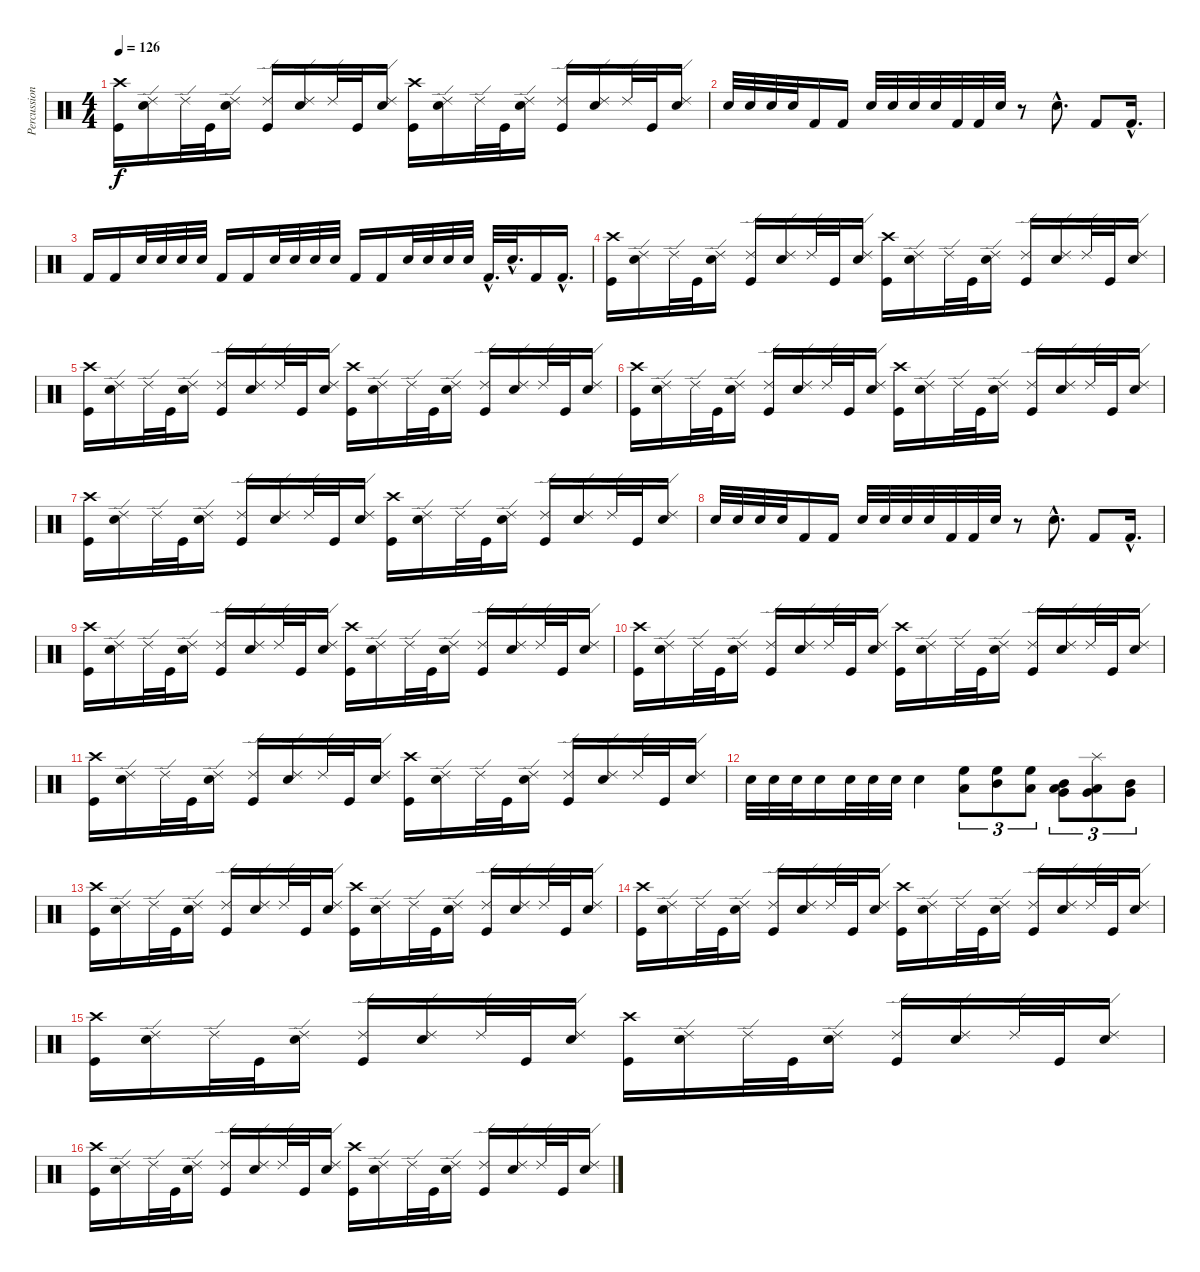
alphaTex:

\track ("Percussion" "Percussion") {instrument percussion}
\staff {score}
\articulation defaults
\ts (4 4)
\tempo 126
\clef neutral
\ks c
("Crash high (hit)" "Kick (hit)").16{dy f} ("Ride (edge) 2" "Snare (hit) 2").16 "Ride (edge) 2".32 "Kick (hit)".32 ("Ride (edge) 2" "Snare (hit) 2").16 ("Ride (edge) 2" "Kick (hit)").16 ("Ride (edge) 2" "Snare (hit) 2").16 "Ride (edge) 2".32 "Kick (hit)".32 ("Ride (edge) 2" "Snare (hit) 2").16 ("Crash high (hit)" "Kick (hit)").16 ("Ride (edge) 2" "Snare (hit) 2").16 "Ride (edge) 2".32 "Kick (hit)".32 ("Ride (edge) 2" "Snare (hit) 2").16 ("Ride (edge) 2" "Kick (hit)").16 ("Ride (edge) 2" "Snare (hit) 2").16 "Ride (edge) 2".32 "Kick (hit)".32 ("Ride (edge) 2" "Snare (hit) 2").16 |
"Snare (hit) 2".32 "Snare (hit) 2".32 "Snare (hit) 2".32 "Snare (hit) 2".32 "Kick (hit) 2".16 "Kick (hit) 2".16 "Snare (hit) 2".32 "Snare (hit) 2".32 "Snare (hit) 2".32 "Snare (hit) 2".32 "Kick (hit) 2".32 "Kick (hit) 2".32 "Snare (hit) 2".32 r.8 "Snare (hit) 2"{hac}.8{d} "Kick (hit) 2".8 "Kick (hit) 2"{hac}.16{d} |
"Kick (hit) 2".16 "Kick (hit) 2".16 "Snare (hit) 2".32 "Snare (hit) 2".32 "Snare (hit) 2".32 "Snare (hit) 2".32 "Kick (hit) 2".16 "Kick (hit) 2".16 "Snare (hit) 2".32 "Snare (hit) 2".32 "Snare (hit) 2".32 "Snare (hit) 2".32 "Kick (hit) 2".16 "Kick (hit) 2".16 "Snare (hit) 2".32 "Snare (hit) 2".32 "Snare (hit) 2".32 "Snare (hit) 2".32 "Kick (hit) 2"{hac}.32{d} "Snare (hit) 2"{hac}.32{d} "Kick (hit) 2".16 "Kick (hit) 2"{hac}.16{d} |
("Crash high (hit)" "Kick (hit)").16 ("Ride (edge) 2" "Snare (hit) 2").16 "Ride (edge) 2".32 "Kick (hit)".32 ("Ride (edge) 2" "Snare (hit) 2").16 ("Ride (edge) 2" "Kick (hit)").16 ("Ride (edge) 2" "Snare (hit) 2").16 "Ride (edge) 2".32 "Kick (hit)".32 ("Ride (edge) 2" "Snare (hit) 2").16 ("Crash high (hit)" "Kick (hit)").16 ("Ride (edge) 2" "Snare (hit) 2").16 "Ride (edge) 2".32 "Kick (hit)".32 ("Ride (edge) 2" "Snare (hit) 2").16 ("Ride (edge) 2" "Kick (hit)").16 ("Ride (edge) 2" "Snare (hit) 2").16 "Ride (edge) 2".32 "Kick (hit)".32 ("Ride (edge) 2" "Snare (hit) 2").16 |
("Crash high (hit)" "Kick (hit)").16 ("Ride (edge) 2" "Snare (hit) 2").16 "Ride (edge) 2".32 "Kick (hit)".32 ("Ride (edge) 2" "Snare (hit) 2").16 ("Ride (edge) 2" "Kick (hit)").16 ("Ride (edge) 2" "Snare (hit) 2").16 "Ride (edge) 2".32 "Kick (hit)".32 ("Ride (edge) 2" "Snare (hit) 2").16 ("Crash high (hit)" "Kick (hit)").16 ("Ride (edge) 2" "Snare (hit) 2").16 "Ride (edge) 2".32 "Kick (hit)".32 ("Ride (edge) 2" "Snare (hit) 2").16 ("Ride (edge) 2" "Kick (hit)").16 ("Ride (edge) 2" "Snare (hit) 2").16 "Ride (edge) 2".32 "Kick (hit)".32 ("Ride (edge) 2" "Snare (hit) 2").16 |
("Crash high (hit)" "Kick (hit)").16 ("Ride (edge) 2" "Snare (hit) 2").16 "Ride (edge) 2".32 "Kick (hit)".32 ("Ride (edge) 2" "Snare (hit) 2").16 ("Ride (edge) 2" "Kick (hit)").16 ("Ride (edge) 2" "Snare (hit) 2").16 "Ride (edge) 2".32 "Kick (hit)".32 ("Ride (edge) 2" "Snare (hit) 2").16 ("Crash high (hit)" "Kick (hit)").16 ("Ride (edge) 2" "Snare (hit) 2").16 "Ride (edge) 2".32 "Kick (hit)".32 ("Ride (edge) 2" "Snare (hit) 2").16 ("Ride (edge) 2" "Kick (hit)").16 ("Ride (edge) 2" "Snare (hit) 2").16 "Ride (edge) 2".32 "Kick (hit)".32 ("Ride (edge) 2" "Snare (hit) 2").16 |
("Crash high (hit)" "Kick (hit)").16 ("Ride (edge) 2" "Snare (hit) 2").16 "Ride (edge) 2".32 "Kick (hit)".32 ("Ride (edge) 2" "Snare (hit) 2").16 ("Ride (edge) 2" "Kick (hit)").16 ("Ride (edge) 2" "Snare (hit) 2").16 "Ride (edge) 2".32 "Kick (hit)".32 ("Ride (edge) 2" "Snare (hit) 2").16 ("Crash high (hit)" "Kick (hit)").16 ("Ride (edge) 2" "Snare (hit) 2").16 "Ride (edge) 2".32 "Kick (hit)".32 ("Ride (edge) 2" "Snare (hit) 2").16 ("Ride (edge) 2" "Kick (hit)").16 ("Ride (edge) 2" "Snare (hit) 2").16 "Ride (edge) 2".32 "Kick (hit)".32 ("Ride (edge) 2" "Snare (hit) 2").16 |
"Snare (hit) 2".32 "Snare (hit) 2".32 "Snare (hit) 2".32 "Snare (hit) 2".32 "Kick (hit) 2".16 "Kick (hit) 2".16 "Snare (hit) 2".32 "Snare (hit) 2".32 "Snare (hit) 2".32 "Snare (hit) 2".32 "Kick (hit) 2".32 "Kick (hit) 2".32 "Snare (hit) 2".32 r.8 "Snare (hit) 2"{hac}.8{d} "Kick (hit) 2".8 "Kick (hit) 2"{hac}.16{d} |
("Crash high (hit)" "Kick (hit)").16 ("Ride (edge) 2" "Snare (hit) 2").16 "Ride (edge) 2".32 "Kick (hit)".32 ("Ride (edge) 2" "Snare (hit) 2").16 ("Ride (edge) 2" "Kick (hit)").16 ("Ride (edge) 2" "Snare (hit) 2").16 "Ride (edge) 2".32 "Kick (hit)".32 ("Ride (edge) 2" "Snare (hit) 2").16 ("Crash high (hit)" "Kick (hit)").16 ("Ride (edge) 2" "Snare (hit) 2").16 "Ride (edge) 2".32 "Kick (hit)".32 ("Ride (edge) 2" "Snare (hit) 2").16 ("Ride (edge) 2" "Kick (hit)").16 ("Ride (edge) 2" "Snare (hit) 2").16 "Ride (edge) 2".32 "Kick (hit)".32 ("Ride (edge) 2" "Snare (hit) 2").16 |
("Crash high (hit)" "Kick (hit)").16 ("Ride (edge) 2" "Snare (hit) 2").16 "Ride (edge) 2".32 "Kick (hit)".32 ("Ride (edge) 2" "Snare (hit) 2").16 ("Ride (edge) 2" "Kick (hit)").16 ("Ride (edge) 2" "Snare (hit) 2").16 "Ride (edge) 2".32 "Kick (hit)".32 ("Ride (edge) 2" "Snare (hit) 2").16 ("Crash high (hit)" "Kick (hit)").16 ("Ride (edge) 2" "Snare (hit) 2").16 "Ride (edge) 2".32 "Kick (hit)".32 ("Ride (edge) 2" "Snare (hit) 2").16 ("Ride (edge) 2" "Kick (hit)").16 ("Ride (edge) 2" "Snare (hit) 2").16 "Ride (edge) 2".32 "Kick (hit)".32 ("Ride (edge) 2" "Snare (hit) 2").16 |
("Crash high (hit)" "Kick (hit)").16 ("Ride (edge) 2" "Snare (hit) 2").16 "Ride (edge) 2".32 "Kick (hit)".32 ("Ride (edge) 2" "Snare (hit) 2").16 ("Ride (edge) 2" "Kick (hit)").16 ("Ride (edge) 2" "Snare (hit) 2").16 "Ride (edge) 2".32 "Kick (hit)".32 ("Ride (edge) 2" "Snare (hit) 2").16 ("Crash high (hit)" "Kick (hit)").16 ("Ride (edge) 2" "Snare (hit) 2").16 "Ride (edge) 2".32 "Kick (hit)".32 ("Ride (edge) 2" "Snare (hit) 2").16 ("Ride (edge) 2" "Kick (hit)").16 ("Ride (edge) 2" "Snare (hit) 2").16 "Ride (edge) 2".32 "Kick (hit)".32 ("Ride (edge) 2" "Snare (hit) 2").16 |
"Snare (hit) 2".32 "Snare (hit) 2".32 "Snare (hit) 2".32 "Snare (hit) 2".16 "Snare (hit) 2".32 "Snare (hit) 2".32 "Snare (hit) 2".32 "Snare (hit) 2".4 ("Low Floor Tom (hit)" "High Floor Tom (hit)").8{tu (3 2)} ("High Floor Tom (hit)" "Mid Tom (hit)").8{tu (3 2)} ("Low Floor Tom (hit)" "High Floor Tom (hit)").8{tu (3 2)} ("Low Tom (hit)" "Very Low Tom (hit)" "Mid Tom (hit)").8{tu (3 2)} ("Low Tom (hit)" "Very Low Tom (hit)" "Splash (hit)").8{tu (3 2)} ("Very Low Tom (hit)" "Mid Tom (hit)").8{tu (3 2)} |
("Crash high (hit)" "Kick (hit)").16 ("Ride (edge) 2" "Snare (hit) 2").16 "Ride (edge) 2".32 "Kick (hit)".32 ("Ride (edge) 2" "Snare (hit) 2").16 ("Ride (edge) 2" "Kick (hit)").16 ("Ride (edge) 2" "Snare (hit) 2").16 "Ride (edge) 2".32 "Kick (hit)".32 ("Ride (edge) 2" "Snare (hit) 2").16 ("Crash high (hit)" "Kick (hit)").16 ("Ride (edge) 2" "Snare (hit) 2").16 "Ride (edge) 2".32 "Kick (hit)".32 ("Ride (edge) 2" "Snare (hit) 2").16 ("Ride (edge) 2" "Kick (hit)").16 ("Ride (edge) 2" "Snare (hit) 2").16 "Ride (edge) 2".32 "Kick (hit)".32 ("Ride (edge) 2" "Snare (hit) 2").16 |
("Crash high (hit)" "Kick (hit)").16 ("Ride (edge) 2" "Snare (hit) 2").16 "Ride (edge) 2".32 "Kick (hit)".32 ("Ride (edge) 2" "Snare (hit) 2").16 ("Ride (edge) 2" "Kick (hit)").16 ("Ride (edge) 2" "Snare (hit) 2").16 "Ride (edge) 2".32 "Kick (hit)".32 ("Ride (edge) 2" "Snare (hit) 2").16 ("Crash high (hit)" "Kick (hit)").16 ("Ride (edge) 2" "Snare (hit) 2").16 "Ride (edge) 2".32 "Kick (hit)".32 ("Ride (edge) 2" "Snare (hit) 2").16 ("Ride (edge) 2" "Kick (hit)").16 ("Ride (edge) 2" "Snare (hit) 2").16 "Ride (edge) 2".32 "Kick (hit)".32 ("Ride (edge) 2" "Snare (hit) 2").16 |
("Crash high (hit)" "Kick (hit)").16 ("Ride (edge) 2" "Snare (hit) 2").16 "Ride (edge) 2".32 "Kick (hit)".32 ("Ride (edge) 2" "Snare (hit) 2").16 ("Ride (edge) 2" "Kick (hit)").16 ("Ride (edge) 2" "Snare (hit) 2").16 "Ride (edge) 2".32 "Kick (hit)".32 ("Ride (edge) 2" "Snare (hit) 2").16 ("Crash high (hit)" "Kick (hit)").16 ("Ride (edge) 2" "Snare (hit) 2").16 "Ride (edge) 2".32 "Kick (hit)".32 ("Ride (edge) 2" "Snare (hit) 2").16 ("Ride (edge) 2" "Kick (hit)").16 ("Ride (edge) 2" "Snare (hit) 2").16 "Ride (edge) 2".32 "Kick (hit)".32 ("Ride (edge) 2" "Snare (hit) 2").16 |
("Crash high (hit)" "Kick (hit)").16 ("Ride (edge) 2" "Snare (hit) 2").16 "Ride (edge) 2".32 "Kick (hit)".32 ("Ride (edge) 2" "Snare (hit) 2").16 ("Ride (edge) 2" "Kick (hit)").16 ("Ride (edge) 2" "Snare (hit) 2").16 "Ride (edge) 2".32 "Kick (hit)".32 ("Ride (edge) 2" "Snare (hit) 2").16 ("Crash high (hit)" "Kick (hit)").16 ("Ride (edge) 2" "Snare (hit) 2").16 "Ride (edge) 2".32 "Kick (hit)".32 ("Ride (edge) 2" "Snare (hit) 2").16 ("Ride (edge) 2" "Kick (hit)").16 ("Ride (edge) 2" "Snare (hit) 2").16 "Ride (edge) 2".32 "Kick (hit)".32 ("Ride (edge) 2" "Snare (hit) 2").16
